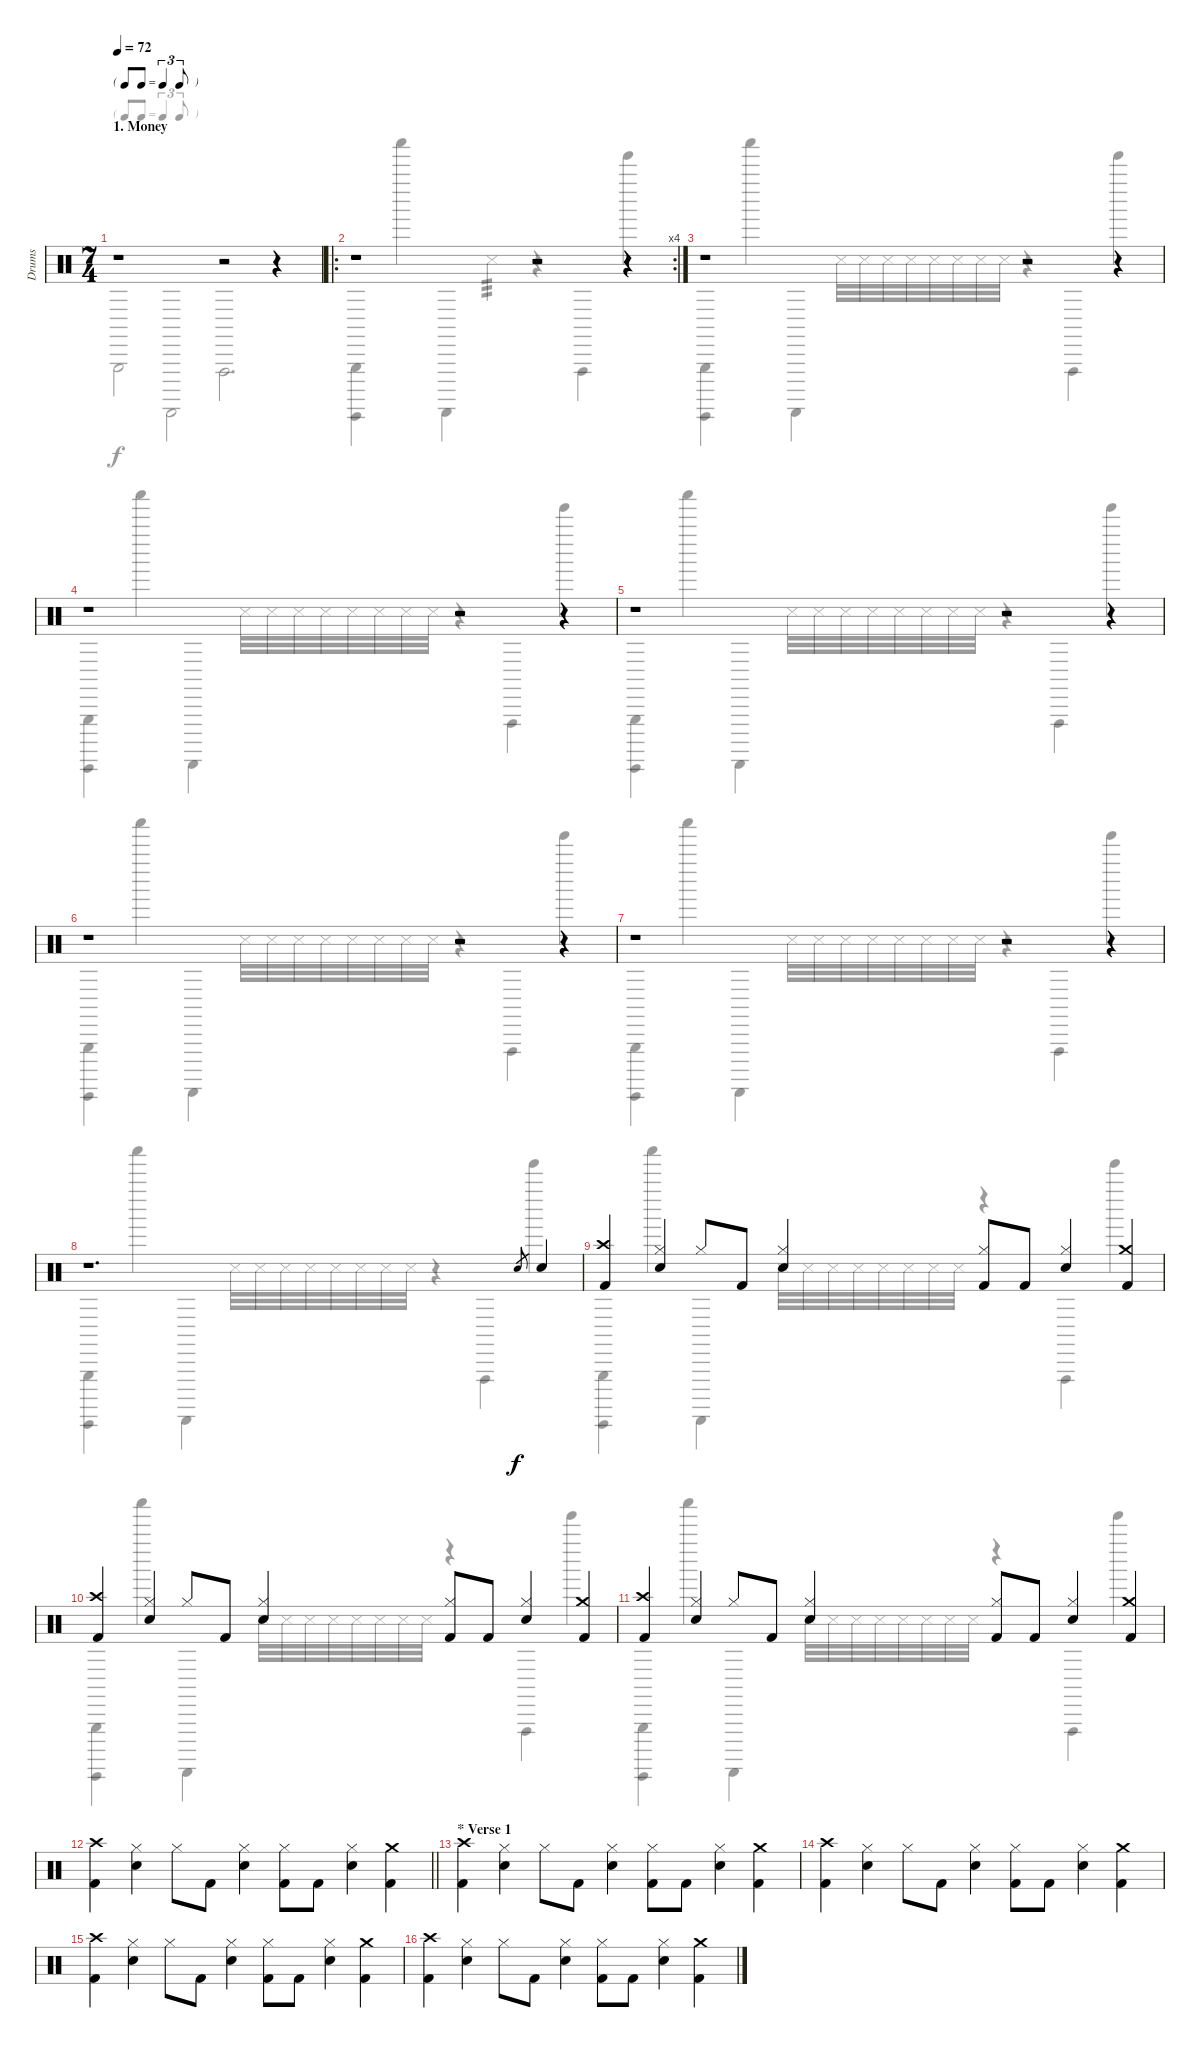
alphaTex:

\track ("Drums" "Drums") {instrument percussion}
\staff {score}
\articulation defaults
\voice
\ts (7 4)
\tf triplet8th
\section ("" "1. Money")
\tempo 72
\tempo 120
\tempo 72
\clef neutral
\ks c
r.1{dy f volume 10} r.2 r.4 |
\ro
\rc 4
r.1 r.2 r.4 |
r.1 r.2 r.4 |
r.1 r.2 r.4 |
r.1 r.2 r.4 |
r.1 r.2 r.4 |
r.1 r.2 r.4 |
r.1{d} "Electric Snare (hit)".8{gr} "Electric Snare (hit)".4 |
("Crash high (hit)" "Kick (hit) 2").4 ("Hi-Hat (closed)" "Electric Snare (hit)").4 "Hi-Hat (closed)".8 "Kick (hit) 2".8 ("Hi-Hat (closed)" "Electric Snare (hit)").4 ("Hi-Hat (closed)" "Kick (hit) 2").8 "Kick (hit) 2".8 ("Hi-Hat (closed)" "Electric Snare (hit)").4 ("Crash medium (hit)" "Kick (hit) 2").4 |
("Crash high (hit)" "Kick (hit) 2").4 ("Hi-Hat (closed)" "Electric Snare (hit)").4 "Hi-Hat (closed)".8 "Kick (hit) 2".8 ("Hi-Hat (closed)" "Electric Snare (hit)").4 ("Hi-Hat (closed)" "Kick (hit) 2").8 "Kick (hit) 2".8 ("Hi-Hat (closed)" "Electric Snare (hit)").4 ("Crash medium (hit)" "Kick (hit) 2").4 |
("Crash high (hit)" "Kick (hit) 2").4 ("Hi-Hat (closed)" "Electric Snare (hit)").4 "Hi-Hat (closed)".8 "Kick (hit) 2".8 ("Hi-Hat (closed)" "Electric Snare (hit)").4 ("Hi-Hat (closed)" "Kick (hit) 2").8 "Kick (hit) 2".8 ("Hi-Hat (closed)" "Electric Snare (hit)").4 ("Crash medium (hit)" "Kick (hit) 2").4 |
\barLineRight lightlight
("Crash high (hit)" "Kick (hit) 2").4 ("Hi-Hat (closed)" "Electric Snare (hit)").4 "Hi-Hat (closed)".8 "Kick (hit) 2".8 ("Hi-Hat (closed)" "Electric Snare (hit)").4 ("Hi-Hat (closed)" "Kick (hit) 2").8 "Kick (hit) 2".8 ("Hi-Hat (closed)" "Electric Snare (hit)").4 ("Crash medium (hit)" "Kick (hit) 2").4 |
\section ("" "* Verse 1")
("Crash high (hit)" "Kick (hit) 2").4 ("Hi-Hat (closed)" "Electric Snare (hit)").4 "Hi-Hat (closed)".8 "Kick (hit) 2".8 ("Hi-Hat (closed)" "Electric Snare (hit)").4 ("Hi-Hat (closed)" "Kick (hit) 2").8 "Kick (hit) 2".8 ("Hi-Hat (closed)" "Electric Snare (hit)").4 ("Crash medium (hit)" "Kick (hit) 2").4 |
("Crash high (hit)" "Kick (hit) 2").4 ("Hi-Hat (closed)" "Electric Snare (hit)").4 "Hi-Hat (closed)".8 "Kick (hit) 2".8 ("Hi-Hat (closed)" "Electric Snare (hit)").4 ("Hi-Hat (closed)" "Kick (hit) 2").8 "Kick (hit) 2".8 ("Hi-Hat (closed)" "Electric Snare (hit)").4 ("Crash medium (hit)" "Kick (hit) 2").4 |
("Crash high (hit)" "Kick (hit) 2").4 ("Hi-Hat (closed)" "Electric Snare (hit)").4 "Hi-Hat (closed)".8 "Kick (hit) 2".8 ("Hi-Hat (closed)" "Electric Snare (hit)").4 ("Hi-Hat (closed)" "Kick (hit) 2").8 "Kick (hit) 2".8 ("Hi-Hat (closed)" "Electric Snare (hit)").4 ("Crash medium (hit)" "Kick (hit) 2").4 |
("Crash high (hit)" "Kick (hit) 2").4 ("Hi-Hat (closed)" "Electric Snare (hit)").4 "Hi-Hat (closed)".8 "Kick (hit) 2".8 ("Hi-Hat (closed)" "Electric Snare (hit)").4 ("Hi-Hat (closed)" "Kick (hit) 2").8 "Kick (hit) 2".8 ("Hi-Hat (closed)" "Electric Snare (hit)").4 ("Crash medium (hit)" "Kick (hit) 2").4
\voice
\clef neutral
\ottava regular
\simile none
\ks c "Triangle (hit)".2{dy f} "Guiro (scrap-return)".2 "Vibraslap (hit)".2{d}
|
("Triangle (hit)" "Guiro (hit)").4 "Shaker (hit)".4 "Guiro (scrap-return)".4 "Snare (side stick) 3".4{tp 3} r.4 "Vibraslap (hit)".4 "Tinkle Bell (hit)".4 |
("Triangle (hit)" "Guiro (hit)").4 "Shaker (hit)".4 "Guiro (scrap-return)".4 "Snare (side stick) 3".32 "Snare (side stick) 3".32 "Snare (side stick) 3".32 "Snare (side stick) 3".32 "Snare (side stick) 3".32 "Snare (side stick) 3".32 "Snare (side stick) 3".32 "Snare (side stick) 3".32 r.4 "Vibraslap (hit)".4 "Tinkle Bell (hit)".4 |
("Triangle (hit)" "Guiro (hit)").4 "Shaker (hit)".4 "Guiro (scrap-return)".4 "Snare (side stick) 3".32 "Snare (side stick) 3".32 "Snare (side stick) 3".32 "Snare (side stick) 3".32 "Snare (side stick) 3".32 "Snare (side stick) 3".32 "Snare (side stick) 3".32 "Snare (side stick) 3".32 r.4 "Vibraslap (hit)".4 "Tinkle Bell (hit)".4 |
("Triangle (hit)" "Guiro (hit)").4 "Shaker (hit)".4 "Guiro (scrap-return)".4 "Snare (side stick) 3".32 "Snare (side stick) 3".32 "Snare (side stick) 3".32 "Snare (side stick) 3".32 "Snare (side stick) 3".32 "Snare (side stick) 3".32 "Snare (side stick) 3".32 "Snare (side stick) 3".32 r.4 "Vibraslap (hit)".4 "Tinkle Bell (hit)".4 |
("Triangle (hit)" "Guiro (hit)").4 "Shaker (hit)".4 "Guiro (scrap-return)".4 "Snare (side stick) 3".32 "Snare (side stick) 3".32 "Snare (side stick) 3".32 "Snare (side stick) 3".32 "Snare (side stick) 3".32 "Snare (side stick) 3".32 "Snare (side stick) 3".32 "Snare (side stick) 3".32 r.4 "Vibraslap (hit)".4 "Tinkle Bell (hit)".4 |
("Triangle (hit)" "Guiro (hit)").4 "Shaker (hit)".4 "Guiro (scrap-return)".4 "Snare (side stick) 3".32 "Snare (side stick) 3".32 "Snare (side stick) 3".32 "Snare (side stick) 3".32 "Snare (side stick) 3".32 "Snare (side stick) 3".32 "Snare (side stick) 3".32 "Snare (side stick) 3".32 r.4 "Vibraslap (hit)".4 "Tinkle Bell (hit)".4 |
("Triangle (hit)" "Guiro (hit)").4 "Shaker (hit)".4 "Guiro (scrap-return)".4 "Snare (side stick) 3".32 "Snare (side stick) 3".32 "Snare (side stick) 3".32 "Snare (side stick) 3".32 "Snare (side stick) 3".32 "Snare (side stick) 3".32 "Snare (side stick) 3".32 "Snare (side stick) 3".32 r.4 "Vibraslap (hit)".4 "Tinkle Bell (hit)".4 |
("Triangle (hit)" "Guiro (hit)").4 "Shaker (hit)".4 "Guiro (scrap-return)".4 "Snare (side stick) 3".32 "Snare (side stick) 3".32 "Snare (side stick) 3".32 "Snare (side stick) 3".32 "Snare (side stick) 3".32 "Snare (side stick) 3".32 "Snare (side stick) 3".32 "Snare (side stick) 3".32 r.4 "Vibraslap (hit)".4 "Tinkle Bell (hit)".4 |
("Triangle (hit)" "Guiro (hit)").4 "Shaker (hit)".4 "Guiro (scrap-return)".4 "Snare (side stick) 3".32 "Snare (side stick) 3".32 "Snare (side stick) 3".32 "Snare (side stick) 3".32 "Snare (side stick) 3".32 "Snare (side stick) 3".32 "Snare (side stick) 3".32 "Snare (side stick) 3".32 r.4 "Vibraslap (hit)".4 "Tinkle Bell (hit)".4 |
("Triangle (hit)" "Guiro (hit)").4 "Shaker (hit)".4 "Guiro (scrap-return)".4 "Snare (side stick) 3".32 "Snare (side stick) 3".32 "Snare (side stick) 3".32 "Snare (side stick) 3".32 "Snare (side stick) 3".32 "Snare (side stick) 3".32 "Snare (side stick) 3".32 "Snare (side stick) 3".32 r.4 "Vibraslap (hit)".4 "Tinkle Bell (hit)".4 |
\barLineRight lightlight
|
|
|
|
